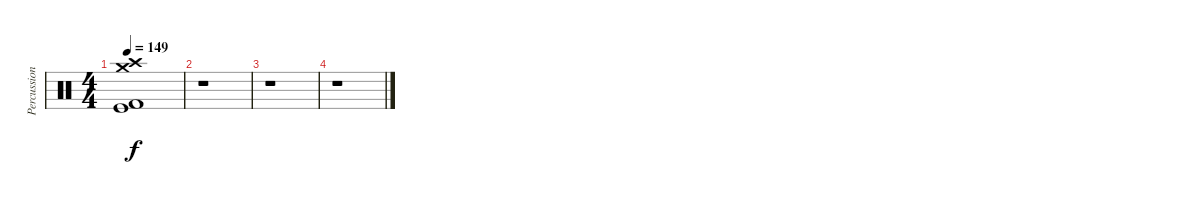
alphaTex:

\track ("Percussioni" "Percussion") {instrument percussion}
\staff {score}
\articulation defaults
\ts (4 4)
\tempo 149
\clef neutral
\ks c
("Crash medium (hit)" "Crash high (hit)" "Kick (hit)" "Kick (hit) 2").1{dy f} |
r.1 |
r.1 |
r.1
